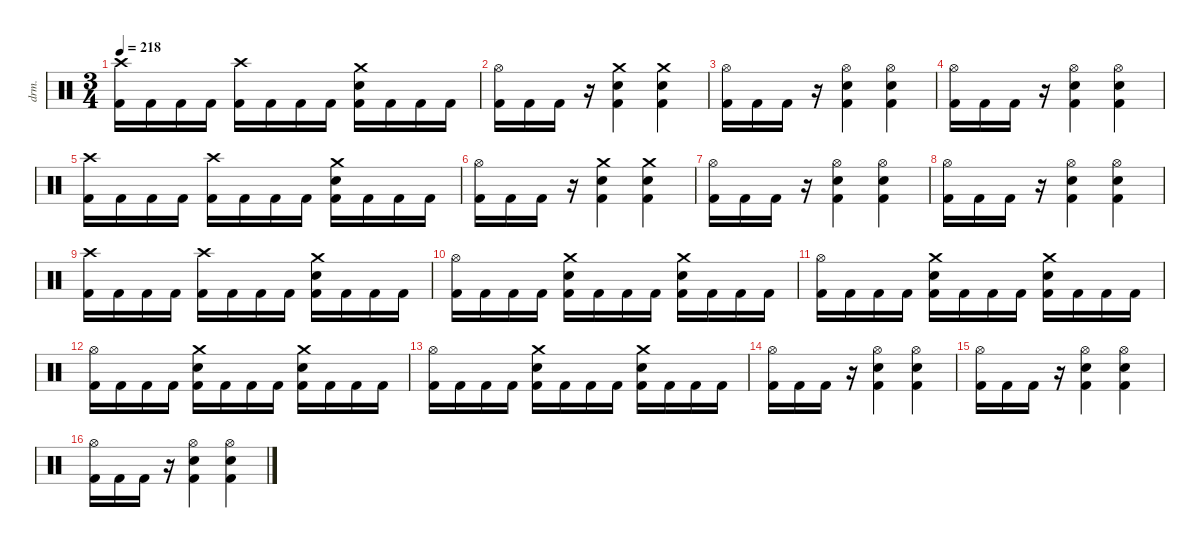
\defaultSystemsLayout 4
\hideDynamics
\bracketExtendMode nobrackets
\otherSystemsTrackNameOrientation horizontal
\track ("Drums" "drm.") {instrument percussion}
\staff {score}
\articulation defaults
\ts (3 4)
\tempo 218
\clef neutral
\ks c
("Crash high (hit)" "Kick (hit) 2").16{dy f beam Down} "Kick (hit) 2".16{beam Down} "Kick (hit) 2".16{beam Down} "Kick (hit) 2".16{beam Down} ("Crash high (hit)" "Kick (hit) 2").16{beam Down} "Kick (hit) 2".16{beam Down} "Kick (hit) 2".16{beam Down} "Kick (hit) 2".16{beam Down} ("Crash medium (hit)" "Snare (hit) 2" "Kick (hit) 2").16{beam Down} "Kick (hit) 2".16{beam Down} "Kick (hit) 2".16{beam Down} "Kick (hit) 2".16{beam Down} |
("Hi-Hat (open)" "Kick (hit) 2").16{beam Down} "Kick (hit) 2".16{beam Down} "Kick (hit) 2".16{beam Down} r.16{beam Down} ("Crash medium (hit)" "Snare (hit) 2" "Kick (hit) 2").4{beam Down} ("Crash medium (hit)" "Snare (hit) 2" "Kick (hit) 2").4{beam Down} |
("Hi-Hat (open)" "Kick (hit) 2").16{beam Down} "Kick (hit) 2".16{beam Down} "Kick (hit) 2".16{beam Down} r.16{beam Down} ("Hi-Hat (open)" "Snare (hit) 2" "Kick (hit) 2").4{beam Down} ("Hi-Hat (open)" "Snare (hit) 2" "Kick (hit) 2").4{beam Down} |
("Hi-Hat (open)" "Kick (hit) 2").16{beam Down} "Kick (hit) 2".16{beam Down} "Kick (hit) 2".16{beam Down} r.16{beam Down} ("Hi-Hat (open)" "Snare (hit) 2" "Kick (hit) 2").4{beam Down} ("Hi-Hat (open)" "Snare (hit) 2" "Kick (hit) 2").4{beam Down} |
("Crash high (hit)" "Kick (hit) 2").16{beam Down} "Kick (hit) 2".16{beam Down} "Kick (hit) 2".16{beam Down} "Kick (hit) 2".16{beam Down} ("Crash high (hit)" "Kick (hit) 2").16{beam Down} "Kick (hit) 2".16{beam Down} "Kick (hit) 2".16{beam Down} "Kick (hit) 2".16{beam Down} ("Crash medium (hit)" "Snare (hit) 2" "Kick (hit) 2").16{beam Down} "Kick (hit) 2".16{beam Down} "Kick (hit) 2".16{beam Down} "Kick (hit) 2".16{beam Down} |
("Hi-Hat (open)" "Kick (hit) 2").16{beam Down} "Kick (hit) 2".16{beam Down} "Kick (hit) 2".16{beam Down} r.16{beam Down} ("Crash medium (hit)" "Snare (hit) 2" "Kick (hit) 2").4{beam Down} ("Crash medium (hit)" "Snare (hit) 2" "Kick (hit) 2").4{beam Down} |
("Hi-Hat (open)" "Kick (hit) 2").16{beam Down} "Kick (hit) 2".16{beam Down} "Kick (hit) 2".16{beam Down} r.16{beam Down} ("Hi-Hat (open)" "Snare (hit) 2" "Kick (hit) 2").4{beam Down} ("Hi-Hat (open)" "Snare (hit) 2" "Kick (hit) 2").4{beam Down} |
("Hi-Hat (open)" "Kick (hit) 2").16{beam Down} "Kick (hit) 2".16{beam Down} "Kick (hit) 2".16{beam Down} r.16{beam Down} ("Hi-Hat (open)" "Snare (hit) 2" "Kick (hit) 2").4{beam Down} ("Hi-Hat (open)" "Snare (hit) 2" "Kick (hit) 2").4{beam Down} |
("Crash high (hit)" "Kick (hit) 2").16{beam Down} "Kick (hit) 2".16{beam Down} "Kick (hit) 2".16{beam Down} "Kick (hit) 2".16{beam Down} ("Crash high (hit)" "Kick (hit) 2").16{beam Down} "Kick (hit) 2".16{beam Down} "Kick (hit) 2".16{beam Down} "Kick (hit) 2".16{beam Down} ("Crash medium (hit)" "Snare (hit) 2" "Kick (hit) 2").16{beam Down} "Kick (hit) 2".16{beam Down} "Kick (hit) 2".16{beam Down} "Kick (hit) 2".16{beam Down} |
("Hi-Hat (open)" "Kick (hit) 2").16{beam Down} "Kick (hit) 2".16{beam Down} "Kick (hit) 2".16{beam Down} "Kick (hit) 2".16{beam Down} ("Crash medium (hit)" "Snare (hit) 2" "Kick (hit) 2").16{beam Down} "Kick (hit) 2".16{beam Down} "Kick (hit) 2".16{beam Down} "Kick (hit) 2".16{beam Down} ("Crash medium (hit)" "Snare (hit) 2" "Kick (hit) 2").16{beam Down} "Kick (hit) 2".16{beam Down} "Kick (hit) 2".16{beam Down} "Kick (hit) 2".16{beam Down} |
("Hi-Hat (open)" "Kick (hit) 2").16{beam Down} "Kick (hit) 2".16{beam Down} "Kick (hit) 2".16{beam Down} "Kick (hit) 2".16{beam Down} ("Crash medium (hit)" "Snare (hit) 2" "Kick (hit) 2").16{beam Down} "Kick (hit) 2".16{beam Down} "Kick (hit) 2".16{beam Down} "Kick (hit) 2".16{beam Down} ("Crash medium (hit)" "Snare (hit) 2" "Kick (hit) 2").16{beam Down} "Kick (hit) 2".16{beam Down} "Kick (hit) 2".16{beam Down} "Kick (hit) 2".16{beam Down} |
("Hi-Hat (open)" "Kick (hit) 2").16{beam Down} "Kick (hit) 2".16{beam Down} "Kick (hit) 2".16{beam Down} "Kick (hit) 2".16{beam Down} ("Crash medium (hit)" "Snare (hit) 2" "Kick (hit) 2").16{beam Down} "Kick (hit) 2".16{beam Down} "Kick (hit) 2".16{beam Down} "Kick (hit) 2".16{beam Down} ("Crash medium (hit)" "Snare (hit) 2" "Kick (hit) 2").16{beam Down} "Kick (hit) 2".16{beam Down} "Kick (hit) 2".16{beam Down} "Kick (hit) 2".16{beam Down} |
("Hi-Hat (open)" "Kick (hit) 2").16{beam Down} "Kick (hit) 2".16{beam Down} "Kick (hit) 2".16{beam Down} "Kick (hit) 2".16{beam Down} ("Crash medium (hit)" "Snare (hit) 2" "Kick (hit) 2").16{beam Down} "Kick (hit) 2".16{beam Down} "Kick (hit) 2".16{beam Down} "Kick (hit) 2".16{beam Down} ("Crash medium (hit)" "Snare (hit) 2" "Kick (hit) 2").16{beam Down} "Kick (hit) 2".16{beam Down} "Kick (hit) 2".16{beam Down} "Kick (hit) 2".16{beam Down} |
("Hi-Hat (open)" "Kick (hit) 2").16{beam Down} "Kick (hit) 2".16{beam Down} "Kick (hit) 2".16{beam Down} r.16{beam Down} ("Hi-Hat (open)" "Snare (hit) 2" "Kick (hit) 2").4{beam Down} ("Hi-Hat (open)" "Snare (hit) 2" "Kick (hit) 2").4{beam Down} |
("Hi-Hat (open)" "Kick (hit) 2").16{beam Down} "Kick (hit) 2".16{beam Down} "Kick (hit) 2".16{beam Down} r.16{beam Down} ("Hi-Hat (open)" "Snare (hit) 2" "Kick (hit) 2").4{beam Down} ("Hi-Hat (open)" "Snare (hit) 2" "Kick (hit) 2").4{beam Down} |
("Hi-Hat (open)" "Kick (hit) 2").16{beam Down} "Kick (hit) 2".16{beam Down} "Kick (hit) 2".16{beam Down} r.16{beam Down} ("Hi-Hat (open)" "Snare (hit) 2" "Kick (hit) 2").4{beam Down} ("Hi-Hat (open)" "Snare (hit) 2" "Kick (hit) 2").4{beam Down}
